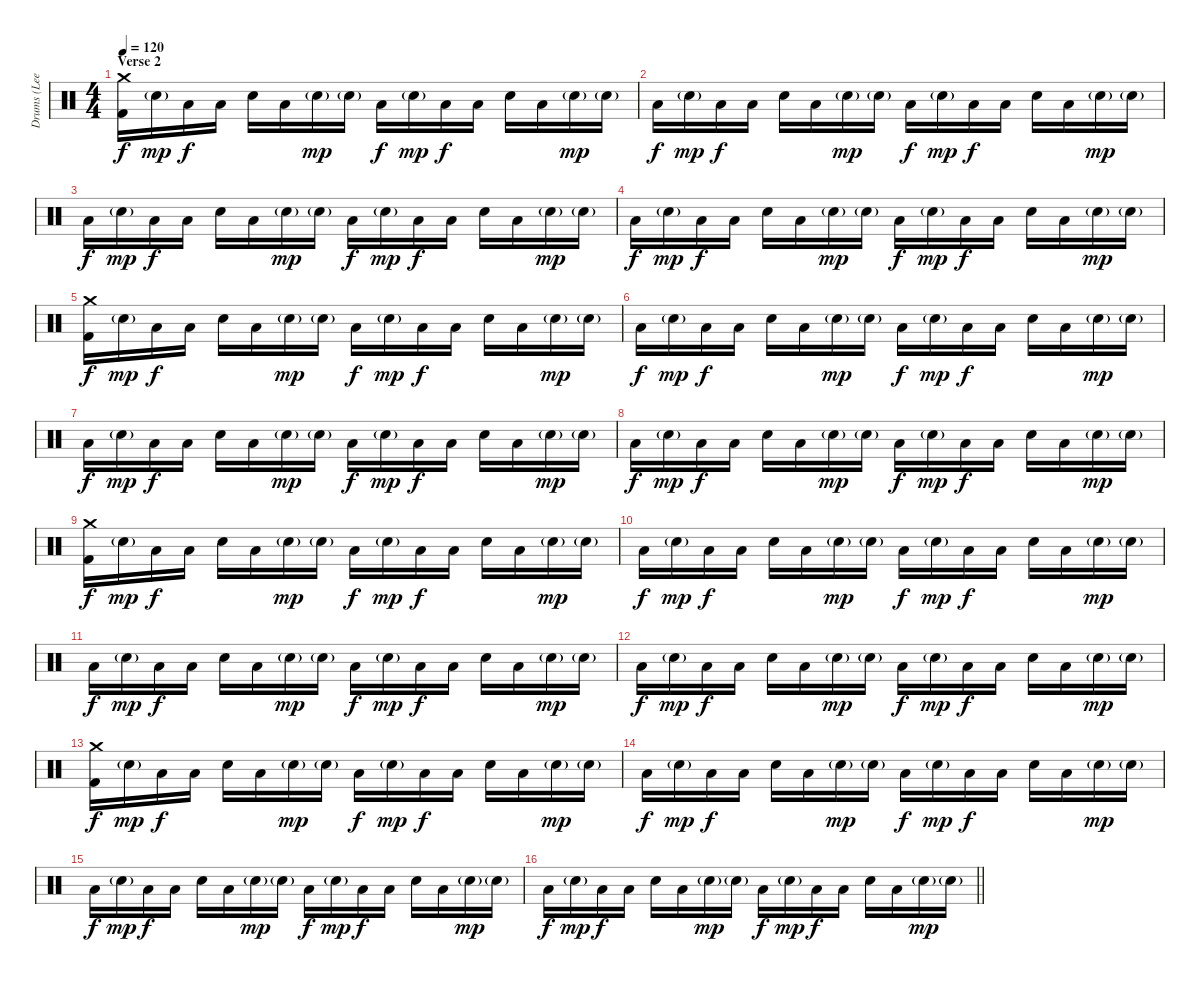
\track ("Drums (Lee)" "Drums (Lee") {instrument percussion}
\staff {score}
\articulation defaults
\ts (4 4)
\section ("" "Verse 2")
\tempo 120
\clef neutral
\ks c
("Crash medium (hit)" "Kick (hit) 2").16{dy f} "Snare (hit) 2"{g}.16{dy mp} "Low Floor Tom (hit)".16{dy f} "Low Floor Tom (hit)".16 "Electric Snare (hit)".16 "Low Floor Tom (hit)".16 "Snare (hit) 2"{g}.16{dy mp} "Snare (hit) 2"{g}.16 "Low Floor Tom (hit)".16{dy f} "Snare (hit) 2"{g}.16{dy mp} "Low Floor Tom (hit)".16{dy f} "Low Floor Tom (hit)".16 "Electric Snare (hit)".16 "Low Floor Tom (hit)".16 "Snare (hit) 2"{g}.16{dy mp} "Snare (hit) 2"{g}.16 |
"Low Floor Tom (hit)".16{dy f} "Snare (hit) 2"{g}.16{dy mp} "Low Floor Tom (hit)".16{dy f} "Low Floor Tom (hit)".16 "Electric Snare (hit)".16 "Low Floor Tom (hit)".16 "Snare (hit) 2"{g}.16{dy mp} "Snare (hit) 2"{g}.16 "Low Floor Tom (hit)".16{dy f} "Snare (hit) 2"{g}.16{dy mp} "Low Floor Tom (hit)".16{dy f} "Low Floor Tom (hit)".16 "Electric Snare (hit)".16 "Low Floor Tom (hit)".16 "Snare (hit) 2"{g}.16{dy mp} "Snare (hit) 2"{g}.16 |
"Low Floor Tom (hit)".16{dy f} "Snare (hit) 2"{g}.16{dy mp} "Low Floor Tom (hit)".16{dy f} "Low Floor Tom (hit)".16 "Electric Snare (hit)".16 "Low Floor Tom (hit)".16 "Snare (hit) 2"{g}.16{dy mp} "Snare (hit) 2"{g}.16 "Low Floor Tom (hit)".16{dy f} "Snare (hit) 2"{g}.16{dy mp} "Low Floor Tom (hit)".16{dy f} "Low Floor Tom (hit)".16 "Electric Snare (hit)".16 "Low Floor Tom (hit)".16 "Snare (hit) 2"{g}.16{dy mp} "Snare (hit) 2"{g}.16 |
"Low Floor Tom (hit)".16{dy f} "Snare (hit) 2"{g}.16{dy mp} "Low Floor Tom (hit)".16{dy f} "Low Floor Tom (hit)".16 "Electric Snare (hit)".16 "Low Floor Tom (hit)".16 "Snare (hit) 2"{g}.16{dy mp} "Snare (hit) 2"{g}.16 "Low Floor Tom (hit)".16{dy f} "Snare (hit) 2"{g}.16{dy mp} "Low Floor Tom (hit)".16{dy f} "Low Floor Tom (hit)".16 "Electric Snare (hit)".16 "Low Floor Tom (hit)".16 "Snare (hit) 2"{g}.16{dy mp} "Snare (hit) 2"{g}.16 |
("Crash medium (hit)" "Kick (hit) 2").16{dy f} "Snare (hit) 2"{g}.16{dy mp} "Low Floor Tom (hit)".16{dy f} "Low Floor Tom (hit)".16 "Electric Snare (hit)".16 "Low Floor Tom (hit)".16 "Snare (hit) 2"{g}.16{dy mp} "Snare (hit) 2"{g}.16 "Low Floor Tom (hit)".16{dy f} "Snare (hit) 2"{g}.16{dy mp} "Low Floor Tom (hit)".16{dy f} "Low Floor Tom (hit)".16 "Electric Snare (hit)".16 "Low Floor Tom (hit)".16 "Snare (hit) 2"{g}.16{dy mp} "Snare (hit) 2"{g}.16 |
"Low Floor Tom (hit)".16{dy f} "Snare (hit) 2"{g}.16{dy mp} "Low Floor Tom (hit)".16{dy f} "Low Floor Tom (hit)".16 "Electric Snare (hit)".16 "Low Floor Tom (hit)".16 "Snare (hit) 2"{g}.16{dy mp} "Snare (hit) 2"{g}.16 "Low Floor Tom (hit)".16{dy f} "Snare (hit) 2"{g}.16{dy mp} "Low Floor Tom (hit)".16{dy f} "Low Floor Tom (hit)".16 "Electric Snare (hit)".16 "Low Floor Tom (hit)".16 "Snare (hit) 2"{g}.16{dy mp} "Snare (hit) 2"{g}.16 |
"Low Floor Tom (hit)".16{dy f} "Snare (hit) 2"{g}.16{dy mp} "Low Floor Tom (hit)".16{dy f} "Low Floor Tom (hit)".16 "Electric Snare (hit)".16 "Low Floor Tom (hit)".16 "Snare (hit) 2"{g}.16{dy mp} "Snare (hit) 2"{g}.16 "Low Floor Tom (hit)".16{dy f} "Snare (hit) 2"{g}.16{dy mp} "Low Floor Tom (hit)".16{dy f} "Low Floor Tom (hit)".16 "Electric Snare (hit)".16 "Low Floor Tom (hit)".16 "Snare (hit) 2"{g}.16{dy mp} "Snare (hit) 2"{g}.16 |
"Low Floor Tom (hit)".16{dy f} "Snare (hit) 2"{g}.16{dy mp} "Low Floor Tom (hit)".16{dy f} "Low Floor Tom (hit)".16 "Electric Snare (hit)".16 "Low Floor Tom (hit)".16 "Snare (hit) 2"{g}.16{dy mp} "Snare (hit) 2"{g}.16 "Low Floor Tom (hit)".16{dy f} "Snare (hit) 2"{g}.16{dy mp} "Low Floor Tom (hit)".16{dy f} "Low Floor Tom (hit)".16 "Electric Snare (hit)".16 "Low Floor Tom (hit)".16 "Snare (hit) 2"{g}.16{dy mp} "Snare (hit) 2"{g}.16 |
("Crash medium (hit)" "Kick (hit) 2").16{dy f} "Snare (hit) 2"{g}.16{dy mp} "Low Floor Tom (hit)".16{dy f} "Low Floor Tom (hit)".16 "Electric Snare (hit)".16 "Low Floor Tom (hit)".16 "Snare (hit) 2"{g}.16{dy mp} "Snare (hit) 2"{g}.16 "Low Floor Tom (hit)".16{dy f} "Snare (hit) 2"{g}.16{dy mp} "Low Floor Tom (hit)".16{dy f} "Low Floor Tom (hit)".16 "Electric Snare (hit)".16 "Low Floor Tom (hit)".16 "Snare (hit) 2"{g}.16{dy mp} "Snare (hit) 2"{g}.16 |
"Low Floor Tom (hit)".16{dy f} "Snare (hit) 2"{g}.16{dy mp} "Low Floor Tom (hit)".16{dy f} "Low Floor Tom (hit)".16 "Electric Snare (hit)".16 "Low Floor Tom (hit)".16 "Snare (hit) 2"{g}.16{dy mp} "Snare (hit) 2"{g}.16 "Low Floor Tom (hit)".16{dy f} "Snare (hit) 2"{g}.16{dy mp} "Low Floor Tom (hit)".16{dy f} "Low Floor Tom (hit)".16 "Electric Snare (hit)".16 "Low Floor Tom (hit)".16 "Snare (hit) 2"{g}.16{dy mp} "Snare (hit) 2"{g}.16 |
"Low Floor Tom (hit)".16{dy f} "Snare (hit) 2"{g}.16{dy mp} "Low Floor Tom (hit)".16{dy f} "Low Floor Tom (hit)".16 "Electric Snare (hit)".16 "Low Floor Tom (hit)".16 "Snare (hit) 2"{g}.16{dy mp} "Snare (hit) 2"{g}.16 "Low Floor Tom (hit)".16{dy f} "Snare (hit) 2"{g}.16{dy mp} "Low Floor Tom (hit)".16{dy f} "Low Floor Tom (hit)".16 "Electric Snare (hit)".16 "Low Floor Tom (hit)".16 "Snare (hit) 2"{g}.16{dy mp} "Snare (hit) 2"{g}.16 |
"Low Floor Tom (hit)".16{dy f} "Snare (hit) 2"{g}.16{dy mp} "Low Floor Tom (hit)".16{dy f} "Low Floor Tom (hit)".16 "Electric Snare (hit)".16 "Low Floor Tom (hit)".16 "Snare (hit) 2"{g}.16{dy mp} "Snare (hit) 2"{g}.16 "Low Floor Tom (hit)".16{dy f} "Snare (hit) 2"{g}.16{dy mp} "Low Floor Tom (hit)".16{dy f} "Low Floor Tom (hit)".16 "Electric Snare (hit)".16 "Low Floor Tom (hit)".16 "Snare (hit) 2"{g}.16{dy mp} "Snare (hit) 2"{g}.16 |
("Crash medium (hit)" "Kick (hit) 2").16{dy f} "Snare (hit) 2"{g}.16{dy mp} "Low Floor Tom (hit)".16{dy f} "Low Floor Tom (hit)".16 "Electric Snare (hit)".16 "Low Floor Tom (hit)".16 "Snare (hit) 2"{g}.16{dy mp} "Snare (hit) 2"{g}.16 "Low Floor Tom (hit)".16{dy f} "Snare (hit) 2"{g}.16{dy mp} "Low Floor Tom (hit)".16{dy f} "Low Floor Tom (hit)".16 "Electric Snare (hit)".16 "Low Floor Tom (hit)".16 "Snare (hit) 2"{g}.16{dy mp} "Snare (hit) 2"{g}.16 |
"Low Floor Tom (hit)".16{dy f} "Snare (hit) 2"{g}.16{dy mp} "Low Floor Tom (hit)".16{dy f} "Low Floor Tom (hit)".16 "Electric Snare (hit)".16 "Low Floor Tom (hit)".16 "Snare (hit) 2"{g}.16{dy mp} "Snare (hit) 2"{g}.16 "Low Floor Tom (hit)".16{dy f} "Snare (hit) 2"{g}.16{dy mp} "Low Floor Tom (hit)".16{dy f} "Low Floor Tom (hit)".16 "Electric Snare (hit)".16 "Low Floor Tom (hit)".16 "Snare (hit) 2"{g}.16{dy mp} "Snare (hit) 2"{g}.16 |
"Low Floor Tom (hit)".16{dy f} "Snare (hit) 2"{g}.16{dy mp} "Low Floor Tom (hit)".16{dy f} "Low Floor Tom (hit)".16 "Electric Snare (hit)".16 "Low Floor Tom (hit)".16 "Snare (hit) 2"{g}.16{dy mp} "Snare (hit) 2"{g}.16 "Low Floor Tom (hit)".16{dy f} "Snare (hit) 2"{g}.16{dy mp} "Low Floor Tom (hit)".16{dy f} "Low Floor Tom (hit)".16 "Electric Snare (hit)".16 "Low Floor Tom (hit)".16 "Snare (hit) 2"{g}.16{dy mp} "Snare (hit) 2"{g}.16 |
\barLineRight lightlight "Low Floor Tom (hit)".16{dy f} "Snare (hit) 2"{g}.16{dy mp} "Low Floor Tom (hit)".16{dy f} "Low Floor Tom (hit)".16 "Electric Snare (hit)".16 "Low Floor Tom (hit)".16 "Snare (hit) 2"{g}.16{dy mp} "Snare (hit) 2"{g}.16 "Low Floor Tom (hit)".16{dy f} "Snare (hit) 2"{g}.16{dy mp} "Low Floor Tom (hit)".16{dy f} "Low Floor Tom (hit)".16 "Electric Snare (hit)".16 "Low Floor Tom (hit)".16 "Snare (hit) 2"{g}.16{dy mp} "Snare (hit) 2"{g}.16
